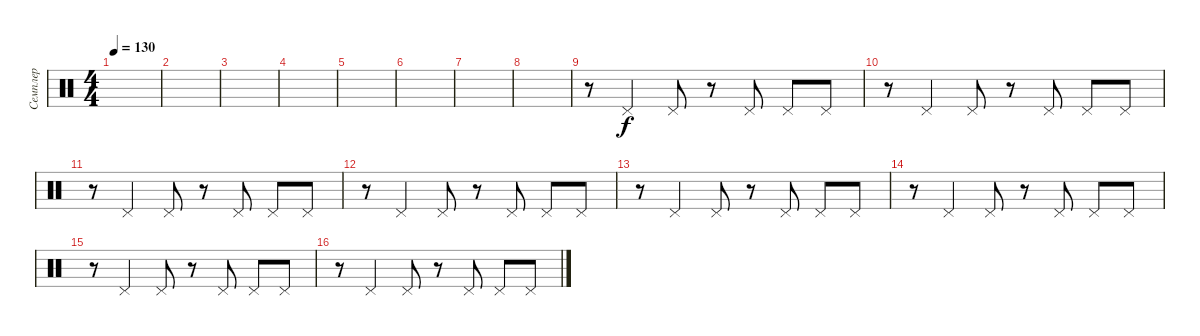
\track ("Семплер" "Семплер") {instrument percussion}
\staff {score}
\articulation defaults
\ts (4 4)
\tempo 130
\clef neutral
\ks c
|
|
|
|
|
|
|
|
r.8 "Pedal Hi-Hat (hit)".4 "Pedal Hi-Hat (hit)".8 r.8 "Pedal Hi-Hat (hit)".8 "Pedal Hi-Hat (hit)".8 "Pedal Hi-Hat (hit)".8 |
r.8 "Pedal Hi-Hat (hit)".4 "Pedal Hi-Hat (hit)".8 r.8 "Pedal Hi-Hat (hit)".8 "Pedal Hi-Hat (hit)".8 "Pedal Hi-Hat (hit)".8 |
r.8 "Pedal Hi-Hat (hit)".4 "Pedal Hi-Hat (hit)".8 r.8 "Pedal Hi-Hat (hit)".8 "Pedal Hi-Hat (hit)".8 "Pedal Hi-Hat (hit)".8 |
r.8 "Pedal Hi-Hat (hit)".4 "Pedal Hi-Hat (hit)".8 r.8 "Pedal Hi-Hat (hit)".8 "Pedal Hi-Hat (hit)".8 "Pedal Hi-Hat (hit)".8 |
r.8 "Pedal Hi-Hat (hit)".4 "Pedal Hi-Hat (hit)".8 r.8 "Pedal Hi-Hat (hit)".8 "Pedal Hi-Hat (hit)".8 "Pedal Hi-Hat (hit)".8 |
r.8 "Pedal Hi-Hat (hit)".4 "Pedal Hi-Hat (hit)".8 r.8 "Pedal Hi-Hat (hit)".8 "Pedal Hi-Hat (hit)".8 "Pedal Hi-Hat (hit)".8 |
r.8 "Pedal Hi-Hat (hit)".4 "Pedal Hi-Hat (hit)".8 r.8 "Pedal Hi-Hat (hit)".8 "Pedal Hi-Hat (hit)".8 "Pedal Hi-Hat (hit)".8 |
r.8 "Pedal Hi-Hat (hit)".4 "Pedal Hi-Hat (hit)".8 r.8 "Pedal Hi-Hat (hit)".8 "Pedal Hi-Hat (hit)".8 "Pedal Hi-Hat (hit)".8
